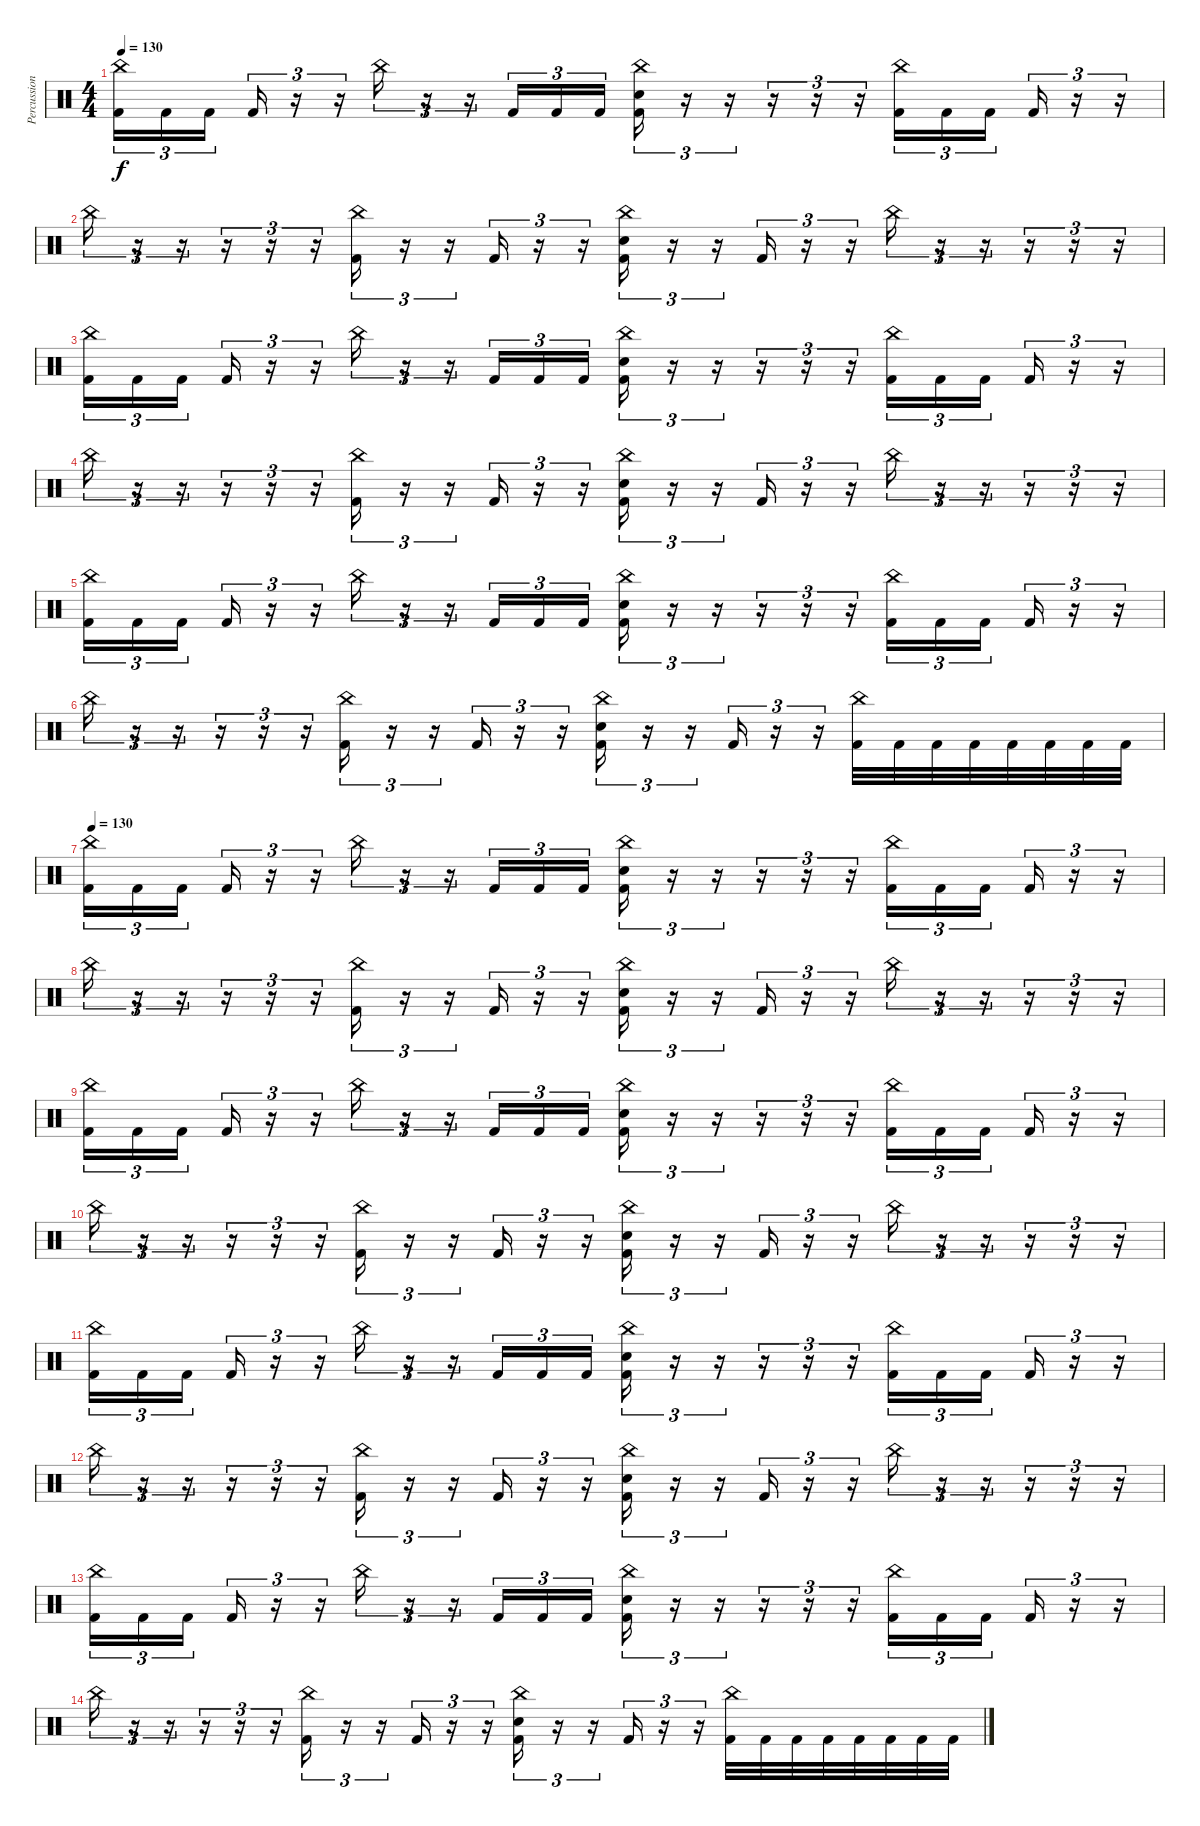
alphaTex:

\track ("Percussion" "Percussion") {instrument percussion}
\staff {score}
\articulation defaults
\ts (4 4)
\tempo 130
\clef neutral
\ks c
("China (hit)" "Kick (hit) 2").16{tu (3 2) dy f} "Kick (hit) 2".16{tu (3 2)} "Kick (hit) 2".16{tu (3 2) beam splitsecondary} "Kick (hit) 2".16{tu (3 2)} r.16{tu (3 2)} r.16{tu (3 2)} "China (hit)".16{tu (3 2)} r.16{tu (3 2)} r.16{tu (3 2)} "Kick (hit) 2".16{tu (3 2)} "Kick (hit) 2".16{tu (3 2)} "Kick (hit) 2".16{tu (3 2)} ("China (hit)" "Electric Snare (hit)" "Kick (hit) 2").16{tu (3 2)} r.16{tu (3 2)} r.16{tu (3 2)} r.16{tu (3 2)} r.16{tu (3 2)} r.16{tu (3 2)} ("China (hit)" "Kick (hit) 2").16{tu (3 2)} "Kick (hit) 2".16{tu (3 2)} "Kick (hit) 2".16{tu (3 2) beam splitsecondary} "Kick (hit) 2".16{tu (3 2)} r.16{tu (3 2)} r.16{tu (3 2)} |
"China (hit)".16{tu (3 2)} r.16{tu (3 2)} r.16{tu (3 2)} r.16{tu (3 2)} r.16{tu (3 2)} r.16{tu (3 2)} ("China (hit)" "Kick (hit) 2").16{tu (3 2)} r.16{tu (3 2)} r.16{tu (3 2)} "Kick (hit) 2".16{tu (3 2)} r.16{tu (3 2)} r.16{tu (3 2)} ("China (hit)" "Electric Snare (hit)" "Kick (hit) 2").16{tu (3 2)} r.16{tu (3 2)} r.16{tu (3 2)} "Kick (hit) 2".16{tu (3 2)} r.16{tu (3 2)} r.16{tu (3 2)} "China (hit)".16{tu (3 2)} r.16{tu (3 2)} r.16{tu (3 2)} r.16{tu (3 2)} r.16{tu (3 2)} r.16{tu (3 2)} |
("China (hit)" "Kick (hit) 2").16{tu (3 2)} "Kick (hit) 2".16{tu (3 2)} "Kick (hit) 2".16{tu (3 2) beam splitsecondary} "Kick (hit) 2".16{tu (3 2)} r.16{tu (3 2)} r.16{tu (3 2)} "China (hit)".16{tu (3 2)} r.16{tu (3 2)} r.16{tu (3 2)} "Kick (hit) 2".16{tu (3 2)} "Kick (hit) 2".16{tu (3 2)} "Kick (hit) 2".16{tu (3 2)} ("China (hit)" "Electric Snare (hit)" "Kick (hit) 2").16{tu (3 2)} r.16{tu (3 2)} r.16{tu (3 2)} r.16{tu (3 2)} r.16{tu (3 2)} r.16{tu (3 2)} ("China (hit)" "Kick (hit) 2").16{tu (3 2)} "Kick (hit) 2".16{tu (3 2)} "Kick (hit) 2".16{tu (3 2) beam splitsecondary} "Kick (hit) 2".16{tu (3 2)} r.16{tu (3 2)} r.16{tu (3 2)} |
"China (hit)".16{tu (3 2)} r.16{tu (3 2)} r.16{tu (3 2)} r.16{tu (3 2)} r.16{tu (3 2)} r.16{tu (3 2)} ("China (hit)" "Kick (hit) 2").16{tu (3 2)} r.16{tu (3 2)} r.16{tu (3 2)} "Kick (hit) 2".16{tu (3 2)} r.16{tu (3 2)} r.16{tu (3 2)} ("China (hit)" "Electric Snare (hit)" "Kick (hit) 2").16{tu (3 2)} r.16{tu (3 2)} r.16{tu (3 2)} "Kick (hit) 2".16{tu (3 2)} r.16{tu (3 2)} r.16{tu (3 2)} "China (hit)".16{tu (3 2)} r.16{tu (3 2)} r.16{tu (3 2)} r.16{tu (3 2)} r.16{tu (3 2)} r.16{tu (3 2)} |
("China (hit)" "Kick (hit) 2").16{tu (3 2)} "Kick (hit) 2".16{tu (3 2)} "Kick (hit) 2".16{tu (3 2) beam splitsecondary} "Kick (hit) 2".16{tu (3 2)} r.16{tu (3 2)} r.16{tu (3 2)} "China (hit)".16{tu (3 2)} r.16{tu (3 2)} r.16{tu (3 2)} "Kick (hit) 2".16{tu (3 2)} "Kick (hit) 2".16{tu (3 2)} "Kick (hit) 2".16{tu (3 2)} ("China (hit)" "Electric Snare (hit)" "Kick (hit) 2").16{tu (3 2)} r.16{tu (3 2)} r.16{tu (3 2)} r.16{tu (3 2)} r.16{tu (3 2)} r.16{tu (3 2)} ("China (hit)" "Kick (hit) 2").16{tu (3 2)} "Kick (hit) 2".16{tu (3 2)} "Kick (hit) 2".16{tu (3 2) beam splitsecondary} "Kick (hit) 2".16{tu (3 2)} r.16{tu (3 2)} r.16{tu (3 2)} |
"China (hit)".16{tu (3 2)} r.16{tu (3 2)} r.16{tu (3 2)} r.16{tu (3 2)} r.16{tu (3 2)} r.16{tu (3 2)} ("China (hit)" "Kick (hit) 2").16{tu (3 2)} r.16{tu (3 2)} r.16{tu (3 2)} "Kick (hit) 2".16{tu (3 2)} r.16{tu (3 2)} r.16{tu (3 2)} ("China (hit)" "Electric Snare (hit)" "Kick (hit) 2").16{tu (3 2)} r.16{tu (3 2)} r.16{tu (3 2)} "Kick (hit) 2".16{tu (3 2)} r.16{tu (3 2)} r.16{tu (3 2)} ("China (hit)" "Kick (hit) 2").32 "Kick (hit) 2".32 "Kick (hit) 2".32 "Kick (hit) 2".32 "Kick (hit) 2".32 "Kick (hit) 2".32 "Kick (hit) 2".32 "Kick (hit) 2".32 |
\tempo 130
("China (hit)" "Kick (hit) 2").16{tu (3 2)} "Kick (hit) 2".16{tu (3 2)} "Kick (hit) 2".16{tu (3 2) beam splitsecondary} "Kick (hit) 2".16{tu (3 2)} r.16{tu (3 2)} r.16{tu (3 2)} "China (hit)".16{tu (3 2)} r.16{tu (3 2)} r.16{tu (3 2)} "Kick (hit) 2".16{tu (3 2)} "Kick (hit) 2".16{tu (3 2)} "Kick (hit) 2".16{tu (3 2)} ("China (hit)" "Electric Snare (hit)" "Kick (hit) 2").16{tu (3 2)} r.16{tu (3 2)} r.16{tu (3 2)} r.16{tu (3 2)} r.16{tu (3 2)} r.16{tu (3 2)} ("China (hit)" "Kick (hit) 2").16{tu (3 2)} "Kick (hit) 2".16{tu (3 2)} "Kick (hit) 2".16{tu (3 2) beam splitsecondary} "Kick (hit) 2".16{tu (3 2)} r.16{tu (3 2)} r.16{tu (3 2)} |
"China (hit)".16{tu (3 2)} r.16{tu (3 2)} r.16{tu (3 2)} r.16{tu (3 2)} r.16{tu (3 2)} r.16{tu (3 2)} ("China (hit)" "Kick (hit) 2").16{tu (3 2)} r.16{tu (3 2)} r.16{tu (3 2)} "Kick (hit) 2".16{tu (3 2)} r.16{tu (3 2)} r.16{tu (3 2)} ("China (hit)" "Electric Snare (hit)" "Kick (hit) 2").16{tu (3 2)} r.16{tu (3 2)} r.16{tu (3 2)} "Kick (hit) 2".16{tu (3 2)} r.16{tu (3 2)} r.16{tu (3 2)} "China (hit)".16{tu (3 2)} r.16{tu (3 2)} r.16{tu (3 2)} r.16{tu (3 2)} r.16{tu (3 2)} r.16{tu (3 2)} |
("China (hit)" "Kick (hit) 2").16{tu (3 2)} "Kick (hit) 2".16{tu (3 2)} "Kick (hit) 2".16{tu (3 2) beam splitsecondary} "Kick (hit) 2".16{tu (3 2)} r.16{tu (3 2)} r.16{tu (3 2)} "China (hit)".16{tu (3 2)} r.16{tu (3 2)} r.16{tu (3 2)} "Kick (hit) 2".16{tu (3 2)} "Kick (hit) 2".16{tu (3 2)} "Kick (hit) 2".16{tu (3 2)} ("China (hit)" "Electric Snare (hit)" "Kick (hit) 2").16{tu (3 2)} r.16{tu (3 2)} r.16{tu (3 2)} r.16{tu (3 2)} r.16{tu (3 2)} r.16{tu (3 2)} ("China (hit)" "Kick (hit) 2").16{tu (3 2)} "Kick (hit) 2".16{tu (3 2)} "Kick (hit) 2".16{tu (3 2) beam splitsecondary} "Kick (hit) 2".16{tu (3 2)} r.16{tu (3 2)} r.16{tu (3 2)} |
"China (hit)".16{tu (3 2)} r.16{tu (3 2)} r.16{tu (3 2)} r.16{tu (3 2)} r.16{tu (3 2)} r.16{tu (3 2)} ("China (hit)" "Kick (hit) 2").16{tu (3 2)} r.16{tu (3 2)} r.16{tu (3 2)} "Kick (hit) 2".16{tu (3 2)} r.16{tu (3 2)} r.16{tu (3 2)} ("China (hit)" "Electric Snare (hit)" "Kick (hit) 2").16{tu (3 2)} r.16{tu (3 2)} r.16{tu (3 2)} "Kick (hit) 2".16{tu (3 2)} r.16{tu (3 2)} r.16{tu (3 2)} "China (hit)".16{tu (3 2)} r.16{tu (3 2)} r.16{tu (3 2)} r.16{tu (3 2)} r.16{tu (3 2)} r.16{tu (3 2)} |
("China (hit)" "Kick (hit) 2").16{tu (3 2)} "Kick (hit) 2".16{tu (3 2)} "Kick (hit) 2".16{tu (3 2) beam splitsecondary} "Kick (hit) 2".16{tu (3 2)} r.16{tu (3 2)} r.16{tu (3 2)} "China (hit)".16{tu (3 2)} r.16{tu (3 2)} r.16{tu (3 2)} "Kick (hit) 2".16{tu (3 2)} "Kick (hit) 2".16{tu (3 2)} "Kick (hit) 2".16{tu (3 2)} ("China (hit)" "Electric Snare (hit)" "Kick (hit) 2").16{tu (3 2)} r.16{tu (3 2)} r.16{tu (3 2)} r.16{tu (3 2)} r.16{tu (3 2)} r.16{tu (3 2)} ("China (hit)" "Kick (hit) 2").16{tu (3 2)} "Kick (hit) 2".16{tu (3 2)} "Kick (hit) 2".16{tu (3 2) beam splitsecondary} "Kick (hit) 2".16{tu (3 2)} r.16{tu (3 2)} r.16{tu (3 2)} |
"China (hit)".16{tu (3 2)} r.16{tu (3 2)} r.16{tu (3 2)} r.16{tu (3 2)} r.16{tu (3 2)} r.16{tu (3 2)} ("China (hit)" "Kick (hit) 2").16{tu (3 2)} r.16{tu (3 2)} r.16{tu (3 2)} "Kick (hit) 2".16{tu (3 2)} r.16{tu (3 2)} r.16{tu (3 2)} ("China (hit)" "Electric Snare (hit)" "Kick (hit) 2").16{tu (3 2)} r.16{tu (3 2)} r.16{tu (3 2)} "Kick (hit) 2".16{tu (3 2)} r.16{tu (3 2)} r.16{tu (3 2)} "China (hit)".16{tu (3 2)} r.16{tu (3 2)} r.16{tu (3 2)} r.16{tu (3 2)} r.16{tu (3 2)} r.16{tu (3 2)} |
("China (hit)" "Kick (hit) 2").16{tu (3 2)} "Kick (hit) 2".16{tu (3 2)} "Kick (hit) 2".16{tu (3 2) beam splitsecondary} "Kick (hit) 2".16{tu (3 2)} r.16{tu (3 2)} r.16{tu (3 2)} "China (hit)".16{tu (3 2)} r.16{tu (3 2)} r.16{tu (3 2)} "Kick (hit) 2".16{tu (3 2)} "Kick (hit) 2".16{tu (3 2)} "Kick (hit) 2".16{tu (3 2)} ("China (hit)" "Electric Snare (hit)" "Kick (hit) 2").16{tu (3 2)} r.16{tu (3 2)} r.16{tu (3 2)} r.16{tu (3 2)} r.16{tu (3 2)} r.16{tu (3 2)} ("China (hit)" "Kick (hit) 2").16{tu (3 2)} "Kick (hit) 2".16{tu (3 2)} "Kick (hit) 2".16{tu (3 2) beam splitsecondary} "Kick (hit) 2".16{tu (3 2)} r.16{tu (3 2)} r.16{tu (3 2)} |
"China (hit)".16{tu (3 2)} r.16{tu (3 2)} r.16{tu (3 2)} r.16{tu (3 2)} r.16{tu (3 2)} r.16{tu (3 2)} ("China (hit)" "Kick (hit) 2").16{tu (3 2)} r.16{tu (3 2)} r.16{tu (3 2)} "Kick (hit) 2".16{tu (3 2)} r.16{tu (3 2)} r.16{tu (3 2)} ("China (hit)" "Electric Snare (hit)" "Kick (hit) 2").16{tu (3 2)} r.16{tu (3 2)} r.16{tu (3 2)} "Kick (hit) 2".16{tu (3 2)} r.16{tu (3 2)} r.16{tu (3 2)} ("China (hit)" "Kick (hit) 2").32 "Kick (hit) 2".32 "Kick (hit) 2".32 "Kick (hit) 2".32 "Kick (hit) 2".32 "Kick (hit) 2".32 "Kick (hit) 2".32 "Kick (hit) 2".32
